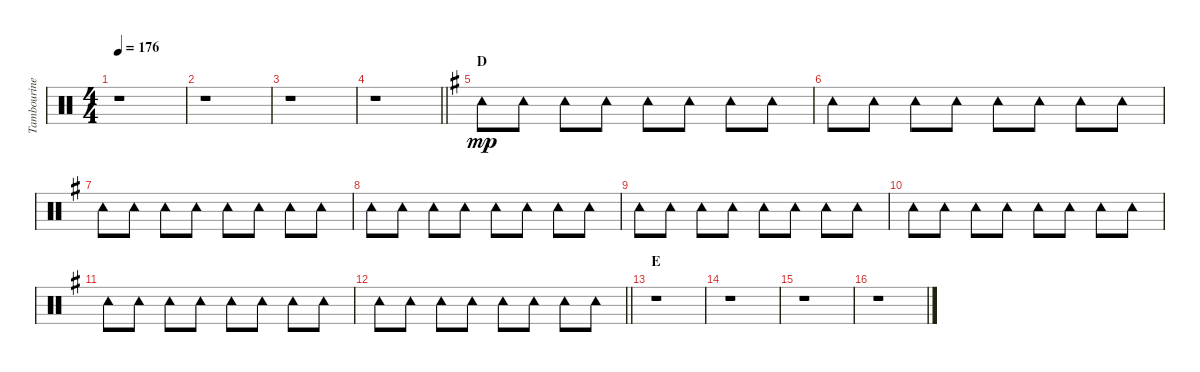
\track ("Tambourine" "Tambourine") {instrument percussion}
\staff {score}
\articulation defaults
\ts (4 4)
\tempo 176
\clef neutral
\ks c
r.1{dy mp} |
r.1 |
r.1 |
\barLineRight lightlight
r.1 |
\section ("" "D")
\ks g "Tambourine (hit)".8 "Tambourine (hit)".8 "Tambourine (hit)".8 "Tambourine (hit)".8 "Tambourine (hit)".8 "Tambourine (hit)".8 "Tambourine (hit)".8 "Tambourine (hit)".8
|
"Tambourine (hit)".8 "Tambourine (hit)".8 "Tambourine (hit)".8 "Tambourine (hit)".8 "Tambourine (hit)".8 "Tambourine (hit)".8 "Tambourine (hit)".8 "Tambourine (hit)".8 |
"Tambourine (hit)".8 "Tambourine (hit)".8 "Tambourine (hit)".8 "Tambourine (hit)".8 "Tambourine (hit)".8 "Tambourine (hit)".8 "Tambourine (hit)".8 "Tambourine (hit)".8 |
"Tambourine (hit)".8 "Tambourine (hit)".8 "Tambourine (hit)".8 "Tambourine (hit)".8 "Tambourine (hit)".8 "Tambourine (hit)".8 "Tambourine (hit)".8 "Tambourine (hit)".8 |
"Tambourine (hit)".8 "Tambourine (hit)".8 "Tambourine (hit)".8 "Tambourine (hit)".8 "Tambourine (hit)".8 "Tambourine (hit)".8 "Tambourine (hit)".8 "Tambourine (hit)".8 |
"Tambourine (hit)".8 "Tambourine (hit)".8 "Tambourine (hit)".8 "Tambourine (hit)".8 "Tambourine (hit)".8 "Tambourine (hit)".8 "Tambourine (hit)".8 "Tambourine (hit)".8 |
"Tambourine (hit)".8 "Tambourine (hit)".8 "Tambourine (hit)".8 "Tambourine (hit)".8 "Tambourine (hit)".8 "Tambourine (hit)".8 "Tambourine (hit)".8 "Tambourine (hit)".8 |
\barLineRight lightlight "Tambourine (hit)".8 "Tambourine (hit)".8 "Tambourine (hit)".8 "Tambourine (hit)".8 "Tambourine (hit)".8 "Tambourine (hit)".8 "Tambourine (hit)".8 "Tambourine (hit)".8
|
\section ("" "E")
r.1 |
r.1 |
r.1 |
r.1
